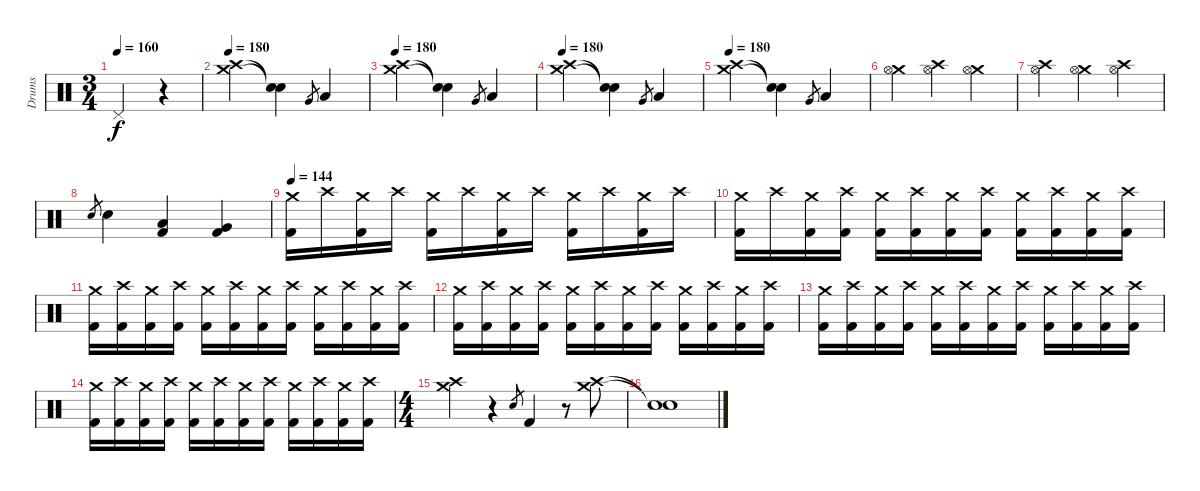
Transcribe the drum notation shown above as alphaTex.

\track ("Drums" "Drums") {instrument percussion}
\staff {score}
\articulation defaults
\ts (3 4)
\tempo 160
\clef neutral
\ks c "Pedal Hi-Hat (hit)".2{dy f}
r.4 |
\tempo 180
("Crash high (hit)" "Crash medium (hit)").4 ("Snare (hit)"{t} "Snare (hit)"{t}).4 "Very Low Tom (hit)".8{gr} "Low Floor Tom (hit)".4 |
\tempo 180
("Crash high (hit)" "Crash medium (hit)").4 ("Snare (hit)"{t} "Snare (hit)"{t}).4 "Very Low Tom (hit)".8{gr} "Low Floor Tom (hit)".4 |
\tempo 180
("Crash high (hit)" "Crash medium (hit)").4 ("Snare (hit)"{t} "Snare (hit)"{t}).4 "Very Low Tom (hit)".8{gr} "Low Floor Tom (hit)".4 |
\tempo 180
("Crash high (hit)" "Crash medium (hit)").4 ("Snare (hit)"{t} "Snare (hit)"{t}).4 "Very Low Tom (hit)".8{gr} "Low Floor Tom (hit)".4 |
("Crash medium (hit)" "Hi-Hat (open)").4 ("Crash high (hit)" "Hi-Hat (open)").4 ("Crash medium (hit)" "Hi-Hat (open)").4 |
("Crash high (hit)" "Hi-Hat (open)").4 ("Crash medium (hit)" "Hi-Hat (open)").4 ("Crash high (hit)" "Hi-Hat (open)").4 |
"Electric Snare (hit)".8{gr} "Electric Snare (hit)".4 ("Low Tom (hit)" "Kick (hit) 2").4 ("Very Low Tom (hit)" "Kick (hit) 2").4 |
\tempo 144
("Crash medium (hit)" "Kick (hit) 2").16 "Crash high (hit)".16 ("Crash medium (hit)" "Kick (hit) 2").16 "Crash high (hit)".16 ("Crash medium (hit)" "Kick (hit) 2").16 "Crash high (hit)".16 ("Crash medium (hit)" "Kick (hit) 2").16 "Crash high (hit)".16 ("Crash medium (hit)" "Kick (hit) 2").16 "Crash high (hit)".16 ("Crash medium (hit)" "Kick (hit) 2").16 "Crash high (hit)".16 |
("Crash medium (hit)" "Kick (hit) 2").16 "Crash high (hit)".16 ("Crash medium (hit)" "Kick (hit) 2").16 ("Crash high (hit)" "Kick (hit) 2").16 ("Crash medium (hit)" "Kick (hit) 2").16 ("Crash high (hit)" "Kick (hit) 2").16 ("Crash medium (hit)" "Kick (hit) 2").16 ("Crash high (hit)" "Kick (hit) 2").16 ("Crash medium (hit)" "Kick (hit) 2").16 ("Crash high (hit)" "Kick (hit) 2").16 ("Crash medium (hit)" "Kick (hit) 2").16 ("Crash high (hit)" "Kick (hit) 2").16 |
("Crash medium (hit)" "Kick (hit) 2").16 ("Crash high (hit)" "Kick (hit) 2").16 ("Crash medium (hit)" "Kick (hit) 2").16 ("Crash high (hit)" "Kick (hit) 2").16 ("Crash medium (hit)" "Kick (hit) 2").16 ("Crash high (hit)" "Kick (hit) 2").16 ("Crash medium (hit)" "Kick (hit) 2").16 ("Crash high (hit)" "Kick (hit) 2").16 ("Crash medium (hit)" "Kick (hit) 2").16 ("Crash high (hit)" "Kick (hit) 2").16 ("Crash medium (hit)" "Kick (hit) 2").16 ("Crash high (hit)" "Kick (hit) 2").16 |
("Crash medium (hit)" "Kick (hit) 2").16 ("Crash high (hit)" "Kick (hit) 2").16 ("Crash medium (hit)" "Kick (hit) 2").16 ("Crash high (hit)" "Kick (hit) 2").16 ("Crash medium (hit)" "Kick (hit) 2").16 ("Crash high (hit)" "Kick (hit) 2").16 ("Crash medium (hit)" "Kick (hit) 2").16 ("Crash high (hit)" "Kick (hit) 2").16 ("Crash medium (hit)" "Kick (hit) 2").16 ("Crash high (hit)" "Kick (hit) 2").16 ("Crash medium (hit)" "Kick (hit) 2").16 ("Crash high (hit)" "Kick (hit) 2").16 |
("Crash medium (hit)" "Kick (hit) 2").16 ("Crash high (hit)" "Kick (hit) 2").16 ("Crash medium (hit)" "Kick (hit) 2").16 ("Crash high (hit)" "Kick (hit) 2").16 ("Crash medium (hit)" "Kick (hit) 2").16 ("Crash high (hit)" "Kick (hit) 2").16 ("Crash medium (hit)" "Kick (hit) 2").16 ("Crash high (hit)" "Kick (hit) 2").16 ("Crash medium (hit)" "Kick (hit) 2").16 ("Crash high (hit)" "Kick (hit) 2").16 ("Crash medium (hit)" "Kick (hit) 2").16 ("Crash high (hit)" "Kick (hit) 2").16 |
("Crash medium (hit)" "Kick (hit) 2").16 ("Crash high (hit)" "Kick (hit) 2").16 ("Crash medium (hit)" "Kick (hit) 2").16 ("Crash high (hit)" "Kick (hit) 2").16 ("Crash medium (hit)" "Kick (hit) 2").16 ("Crash high (hit)" "Kick (hit) 2").16 ("Crash medium (hit)" "Kick (hit) 2").16 ("Crash high (hit)" "Kick (hit) 2").16 ("Crash medium (hit)" "Kick (hit) 2").16 ("Crash high (hit)" "Kick (hit) 2").16 ("Crash medium (hit)" "Kick (hit) 2").16 ("Crash high (hit)" "Kick (hit) 2").16 |
\ts (4 4)
("Crash medium (hit)" "Crash high (hit)").4 r.4 "Electric Snare (hit)".8{gr} "Kick (hit) 2".4 r.8 ("Crash high (hit)" "Crash medium (hit)").8 |
("Snare (hit)"{t} "Snare (hit)"{t}).1
